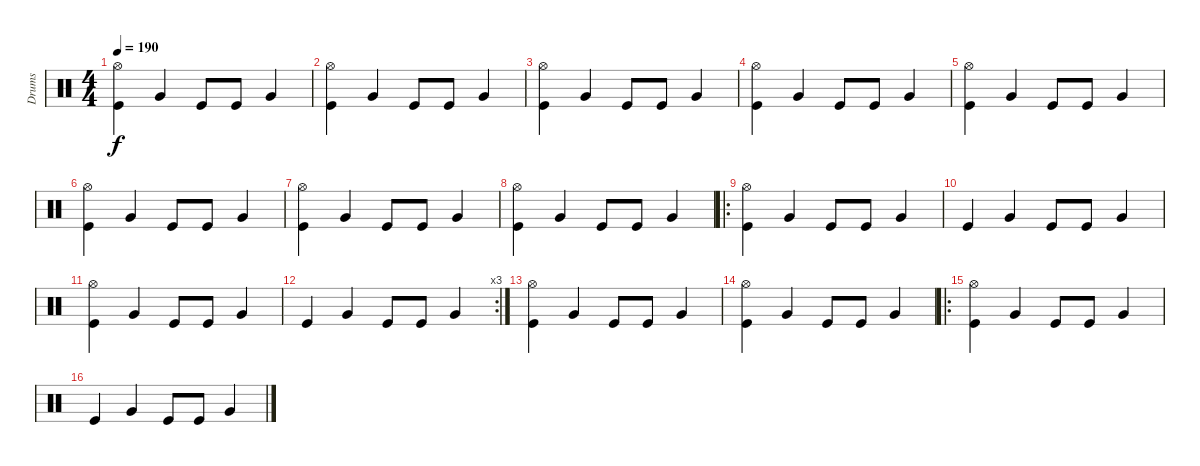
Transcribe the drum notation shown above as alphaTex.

\track ("Drums" "Drums") {instrument percussion}
\staff {score}
\articulation defaults
\ts (4 4)
\tempo 190
\clef neutral
\ks c
("Hi-Hat (open)" "Kick (hit)").4{dy f} "Very Low Tom (hit)".4 "Kick (hit)".8 "Kick (hit)".8 "Very Low Tom (hit)".4 |
("Hi-Hat (open)" "Kick (hit)").4 "Very Low Tom (hit)".4 "Kick (hit)".8 "Kick (hit)".8 "Very Low Tom (hit)".4 |
("Hi-Hat (open)" "Kick (hit)").4 "Very Low Tom (hit)".4 "Kick (hit)".8 "Kick (hit)".8 "Very Low Tom (hit)".4 |
("Hi-Hat (open)" "Kick (hit)").4 "Very Low Tom (hit)".4 "Kick (hit)".8 "Kick (hit)".8 "Very Low Tom (hit)".4 |
("Hi-Hat (open)" "Kick (hit)").4 "Very Low Tom (hit)".4 "Kick (hit)".8 "Kick (hit)".8 "Very Low Tom (hit)".4 |
("Hi-Hat (open)" "Kick (hit)").4 "Very Low Tom (hit)".4 "Kick (hit)".8 "Kick (hit)".8 "Very Low Tom (hit)".4 |
("Hi-Hat (open)" "Kick (hit)").4 "Very Low Tom (hit)".4 "Kick (hit)".8 "Kick (hit)".8 "Very Low Tom (hit)".4 |
("Hi-Hat (open)" "Kick (hit)").4 "Very Low Tom (hit)".4 "Kick (hit)".8 "Kick (hit)".8 "Very Low Tom (hit)".4 |
\ro
("Hi-Hat (open)" "Kick (hit)").4 "Very Low Tom (hit)".4 "Kick (hit)".8 "Kick (hit)".8 "Very Low Tom (hit)".4 |
"Kick (hit)".4 "Very Low Tom (hit)".4 "Kick (hit)".8 "Kick (hit)".8 "Very Low Tom (hit)".4 |
("Hi-Hat (open)" "Kick (hit)").4 "Very Low Tom (hit)".4 "Kick (hit)".8 "Kick (hit)".8 "Very Low Tom (hit)".4 |
\rc 3 "Kick (hit)".4 "Very Low Tom (hit)".4 "Kick (hit)".8 "Kick (hit)".8 "Very Low Tom (hit)".4
|
("Hi-Hat (open)" "Kick (hit)").4 "Very Low Tom (hit)".4 "Kick (hit)".8 "Kick (hit)".8 "Very Low Tom (hit)".4 |
("Hi-Hat (open)" "Kick (hit)").4 "Very Low Tom (hit)".4 "Kick (hit)".8 "Kick (hit)".8 "Very Low Tom (hit)".4 |
\ro
("Hi-Hat (open)" "Kick (hit)").4 "Very Low Tom (hit)".4 "Kick (hit)".8 "Kick (hit)".8 "Very Low Tom (hit)".4 |
"Kick (hit)".4 "Very Low Tom (hit)".4 "Kick (hit)".8 "Kick (hit)".8 "Very Low Tom (hit)".4
